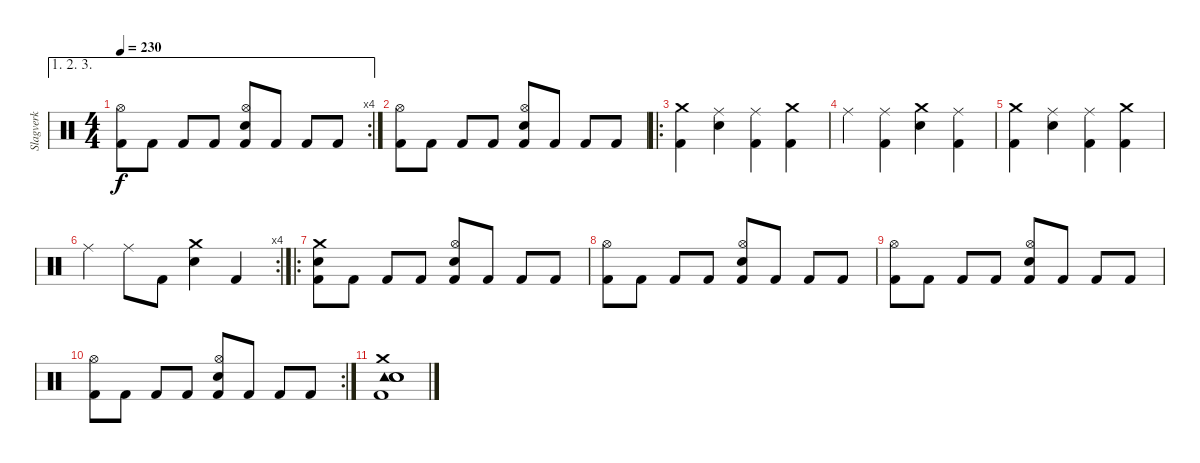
\track ("Slagverk" "Slagverk") {instrument percussion}
\staff {score}
\articulation defaults
\ae (1 2 3)
\rc 4
\ts (4 4)
\tempo 230
\clef neutral
\ks c
("Kick (hit) 2" "Hi-Hat (open)").8{dy f} "Kick (hit) 2".8 "Kick (hit) 2".8 "Kick (hit) 2".8 ("Hi-Hat (open)" "Kick (hit) 2" "Snare (hit) 2").8 "Kick (hit) 2".8 "Kick (hit) 2".8 "Kick (hit) 2".8 |
("Kick (hit) 2" "Hi-Hat (open)").8 "Kick (hit) 2".8 "Kick (hit) 2".8 "Kick (hit) 2".8 ("Hi-Hat (open)" "Kick (hit) 2" "Snare (hit) 2").8 "Kick (hit) 2".8 "Kick (hit) 2".8 "Kick (hit) 2".8 |
\ro
("Kick (hit) 2" "Crash medium (hit)").4 ("Snare (hit) 2" "Ride (middle)").4 ("Kick (hit) 2" "Ride (middle)").4 ("Kick (hit) 2" "Crash medium (hit)").4 |
"Ride (middle)".4 ("Kick (hit) 2" "Ride (middle)").4 ("Snare (hit) 2" "Crash medium (hit)").4 ("Kick (hit) 2" "Ride (middle)").4 |
("Kick (hit) 2" "Crash medium (hit)").4 ("Snare (hit) 2" "Ride (middle)").4 ("Kick (hit) 2" "Ride (middle)").4 ("Kick (hit) 2" "Crash medium (hit)").4 |
\rc 4 "Ride (middle)".4 "Ride (middle)".8 "Kick (hit) 2".8
("Snare (hit) 2" "Crash medium (hit)").4 "Kick (hit) 2".4 |
\ro
("Kick (hit) 2" "Snare (hit) 2" "Crash medium (hit)").8 "Kick (hit) 2".8 "Kick (hit) 2".8 "Kick (hit) 2".8 ("Kick (hit) 2" "Snare (hit) 2" "Hi-Hat (open)").8 "Kick (hit) 2".8 "Kick (hit) 2".8 "Kick (hit) 2".8 |
("Kick (hit) 2" "Hi-Hat (open)").8 "Kick (hit) 2".8 "Kick (hit) 2".8 "Kick (hit) 2".8 ("Kick (hit) 2" "Snare (hit) 2" "Hi-Hat (open)").8 "Kick (hit) 2".8 "Kick (hit) 2".8 "Kick (hit) 2".8 |
("Kick (hit) 2" "Hi-Hat (open)").8 "Kick (hit) 2".8 "Kick (hit) 2".8 "Kick (hit) 2".8 ("Kick (hit) 2" "Snare (hit) 2" "Hi-Hat (open)").8 "Kick (hit) 2".8 "Kick (hit) 2".8 "Kick (hit) 2".8 |
\rc 2
("Kick (hit) 2" "Hi-Hat (open)").8 "Kick (hit) 2".8 "Kick (hit) 2".8 "Kick (hit) 2".8 ("Kick (hit) 2" "Snare (hit) 2" "Hi-Hat (open)").8 "Kick (hit) 2".8 "Kick (hit) 2".8 "Kick (hit) 2".8 |
("Kick (hit) 2" "Tambourine (hit)" "Crash medium (hit)" "Snare (hit) 2" "Electric Snare (hit)").1
